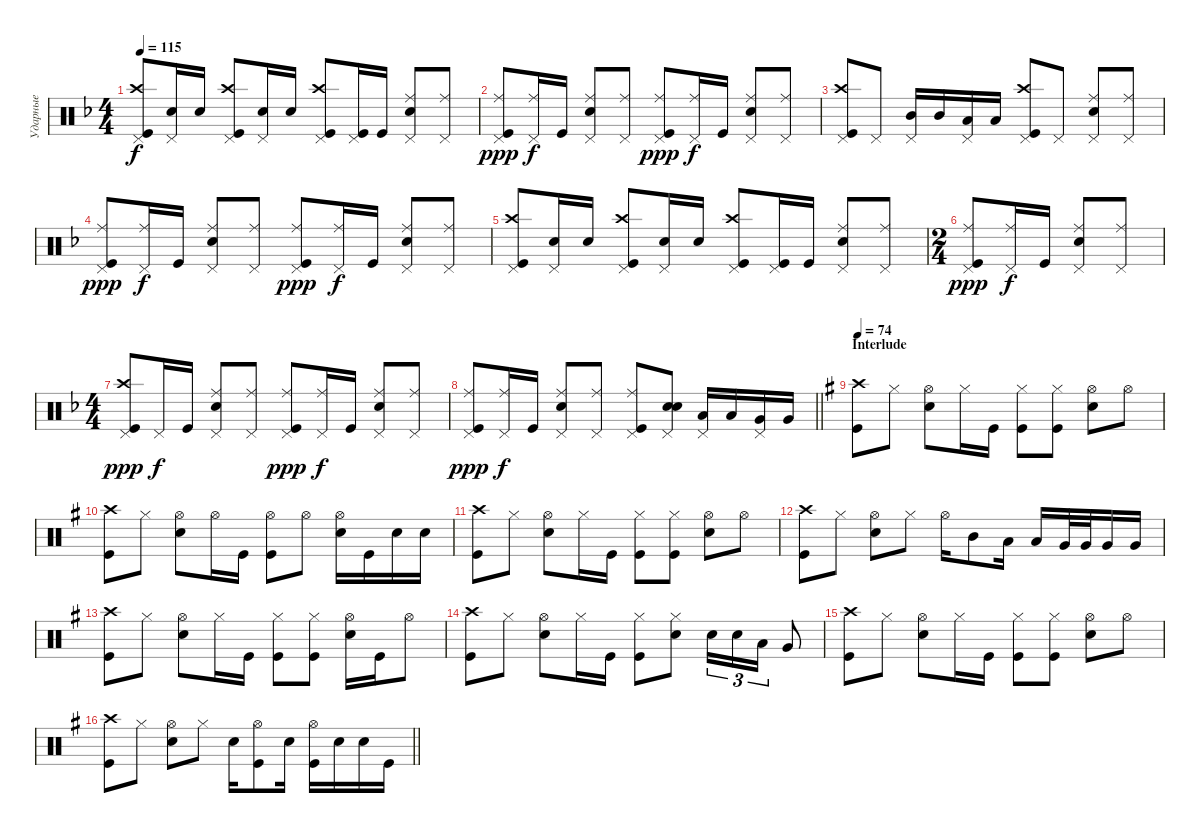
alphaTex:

\track ("Ударные" "Ударные") {instrument percussion}
\staff {score}
\articulation defaults
\ts (4 4)
\tempo 115
\clef neutral
\ks dminor
("Kick (hit)" "Crash high (hit)" "Pedal Hi-Hat (hit)").8{dy f} ("Snare (hit) 2" "Pedal Hi-Hat (hit)").16 "Snare (hit) 2".16 ("Kick (hit)" "Crash high (hit)" "Pedal Hi-Hat (hit)").8 ("Snare (hit) 2" "Pedal Hi-Hat (hit)").16 "Snare (hit) 2".16 ("Kick (hit)" "Crash high (hit)" "Pedal Hi-Hat (hit)").8 ("Pedal Hi-Hat (hit)" "Kick (hit)").16 "Kick (hit)".16 ("Snare (hit) 2" "Pedal Hi-Hat (hit)" "Ride (middle)").8 ("Pedal Hi-Hat (hit)" "Ride (middle)").8 |
("Kick (hit)" "Pedal Hi-Hat (hit)" "Ride (middle)").8{dy ppp} ("Ride (middle)" "Pedal Hi-Hat (hit)").16{dy f} "Kick (hit)".16 ("Pedal Hi-Hat (hit)" "Snare (hit) 2" "Ride (middle)").8 ("Ride (middle)" "Pedal Hi-Hat (hit)").8 ("Kick (hit)" "Pedal Hi-Hat (hit)" "Ride (middle)").8{dy ppp} ("Ride (middle)" "Pedal Hi-Hat (hit)").16{dy f} "Kick (hit)".16 ("Pedal Hi-Hat (hit)" "Snare (hit) 2" "Ride (middle)").8 ("Ride (middle)" "Pedal Hi-Hat (hit)").8 |
("Kick (hit)" "Crash high (hit)" "Pedal Hi-Hat (hit)").8 "Pedal Hi-Hat (hit)".8 ("Pedal Hi-Hat (hit)" "Mid Tom (hit)").16 "Mid Tom (hit)".16 ("Low Tom (hit)" "Pedal Hi-Hat (hit)").16 "Low Tom (hit)".16 ("Kick (hit)" "Crash high (hit)" "Pedal Hi-Hat (hit)").8 "Pedal Hi-Hat (hit)".8 ("Snare (hit) 2" "Pedal Hi-Hat (hit)" "Ride (middle)").8 ("Pedal Hi-Hat (hit)" "Ride (middle)").8 |
("Kick (hit)" "Pedal Hi-Hat (hit)" "Ride (middle)").8{dy ppp} ("Ride (middle)" "Pedal Hi-Hat (hit)").16{dy f} "Kick (hit)".16 ("Pedal Hi-Hat (hit)" "Snare (hit) 2" "Ride (middle)").8 ("Ride (middle)" "Pedal Hi-Hat (hit)").8 ("Kick (hit)" "Pedal Hi-Hat (hit)" "Ride (middle)").8{dy ppp} ("Ride (middle)" "Pedal Hi-Hat (hit)").16{dy f} "Kick (hit)".16 ("Pedal Hi-Hat (hit)" "Snare (hit) 2" "Ride (middle)").8 ("Ride (middle)" "Pedal Hi-Hat (hit)").8 |
("Kick (hit)" "Crash high (hit)" "Pedal Hi-Hat (hit)").8 ("Snare (hit) 2" "Pedal Hi-Hat (hit)").16 "Snare (hit) 2".16 ("Kick (hit)" "Crash high (hit)" "Pedal Hi-Hat (hit)").8 ("Snare (hit) 2" "Pedal Hi-Hat (hit)").16 "Snare (hit) 2".16 ("Kick (hit)" "Crash high (hit)" "Pedal Hi-Hat (hit)").8 ("Pedal Hi-Hat (hit)" "Kick (hit)").16 "Kick (hit)".16 ("Snare (hit) 2" "Pedal Hi-Hat (hit)" "Ride (middle)").8 ("Pedal Hi-Hat (hit)" "Ride (middle)").8 |
\ts (2 4)
("Kick (hit)" "Pedal Hi-Hat (hit)" "Ride (middle)").8{dy ppp} ("Ride (middle)" "Pedal Hi-Hat (hit)").16{dy f} "Kick (hit)".16 ("Pedal Hi-Hat (hit)" "Snare (hit) 2" "Ride (middle)").8 ("Ride (middle)" "Pedal Hi-Hat (hit)").8 |
\ts (4 4)
("Kick (hit)" "Pedal Hi-Hat (hit)" "Crash high (hit)").8{dy ppp} "Pedal Hi-Hat (hit)".16{dy f} "Kick (hit)".16 ("Pedal Hi-Hat (hit)" "Snare (hit) 2" "Ride (middle)").8 ("Ride (middle)" "Pedal Hi-Hat (hit)").8 ("Kick (hit)" "Pedal Hi-Hat (hit)" "Ride (middle)").8{dy ppp} ("Ride (middle)" "Pedal Hi-Hat (hit)").16{dy f} "Kick (hit)".16 ("Pedal Hi-Hat (hit)" "Snare (hit) 2" "Ride (middle)").8 ("Ride (middle)" "Pedal Hi-Hat (hit)").8 |
\barLineRight lightlight
("Kick (hit)" "Pedal Hi-Hat (hit)" "Ride (middle)").8{dy ppp} ("Ride (middle)" "Pedal Hi-Hat (hit)").16{dy f} "Kick (hit)".16 ("Pedal Hi-Hat (hit)" "Snare (hit) 2" "Ride (middle)").8 ("Ride (middle)" "Pedal Hi-Hat (hit)").8 ("Kick (hit)" "Ride (middle)" "Pedal Hi-Hat (hit)").8 ("Snare (hit) 2" "Snare (hit) 2" "Pedal Hi-Hat (hit)").8{bd 480} ("Low Tom (hit)" "Pedal Hi-Hat (hit)").16 "Low Tom (hit)".16 ("Very Low Tom (hit)" "Pedal Hi-Hat (hit)").16 "Very Low Tom (hit)".16 |
\section ("" "Interlude")
\tempo 74
\ks eminor
("Kick (hit)" "Crash high (hit)").8 "Hi-Hat (closed)".8 ("Hi-Hat (open)" "Snare (hit) 2").8 "Hi-Hat (closed)".16 "Kick (hit)".16 ("Kick (hit)" "Hi-Hat (closed)").8 ("Kick (hit)" "Hi-Hat (closed)").8 ("Hi-Hat (open)" "Snare (hit) 2").8 "Hi-Hat (open)".8 |
("Crash high (hit)" "Kick (hit)").8 "Hi-Hat (closed)".8 ("Hi-Hat (open)" "Snare (hit) 2").8 "Hi-Hat (open)".16 "Kick (hit)".16 ("Hi-Hat (open)" "Kick (hit)").8 "Hi-Hat (open)".8 ("Snare (hit) 2" "Hi-Hat (open)").16 "Kick (hit)".16 "Snare (hit) 2".16 "Snare (hit) 2".16 |
("Kick (hit)" "Crash high (hit)").8 "Hi-Hat (closed)".8 ("Hi-Hat (open)" "Snare (hit) 2").8 "Hi-Hat (closed)".16 "Kick (hit)".16 ("Kick (hit)" "Hi-Hat (closed)").8 ("Kick (hit)" "Hi-Hat (closed)").8 ("Hi-Hat (open)" "Snare (hit) 2").8 "Hi-Hat (open)".8 |
("Crash high (hit)" "Kick (hit)").8 "Hi-Hat (closed)".8 ("Hi-Hat (open)" "Snare (hit) 2").8 "Hi-Hat (closed)".8 "Hi-Hat (open)".16 "Mid Tom (hit)".8 "Low Tom (hit)".16 "Low Tom (hit)".16 "Very Low Tom (hit)".32 "Very Low Tom (hit)".32 "Very Low Tom (hit)".16 "Very Low Tom (hit)".16 |
("Kick (hit)" "Crash high (hit)").8 "Hi-Hat (closed)".8 ("Hi-Hat (open)" "Snare (hit) 2").8 "Hi-Hat (closed)".16 "Kick (hit)".16 ("Kick (hit)" "Hi-Hat (closed)").8 ("Kick (hit)" "Hi-Hat (closed)").8 ("Hi-Hat (open)" "Snare (hit) 2").16 "Kick (hit)".16 "Hi-Hat (open)".8 |
("Crash high (hit)" "Kick (hit)").8 "Hi-Hat (closed)".8 ("Hi-Hat (open)" "Snare (hit) 2").8 "Hi-Hat (closed)".16 "Kick (hit)".16 ("Kick (hit)" "Hi-Hat (closed)").8 ("Snare (hit) 2" "Hi-Hat (closed)").8 "Snare (hit) 2".16{tu (3 2)} "Snare (hit) 2".16{tu (3 2)} "Low Tom (hit)".16{tu (3 2)} "Very Low Tom (hit)".8 |
("Kick (hit)" "Crash high (hit)").8 "Hi-Hat (closed)".8 ("Hi-Hat (open)" "Snare (hit) 2").8 "Hi-Hat (closed)".16 "Kick (hit)".16 ("Kick (hit)" "Hi-Hat (closed)").8 ("Kick (hit)" "Hi-Hat (closed)").8 ("Hi-Hat (open)" "Snare (hit) 2").8 "Hi-Hat (open)".8 |
\barLineRight lightlight
("Crash high (hit)" "Kick (hit)").8 "Hi-Hat (closed)".8 ("Hi-Hat (open)" "Snare (hit) 2").8 "Hi-Hat (closed)".8 "Snare (hit) 2".16 ("Kick (hit)" "Hi-Hat (open)").8 "Snare (hit) 2".16{bd 480} ("Kick (hit)" "Hi-Hat (open)").16 "Snare (hit) 2".16 "Snare (hit) 2".16 "Kick (hit)".16
